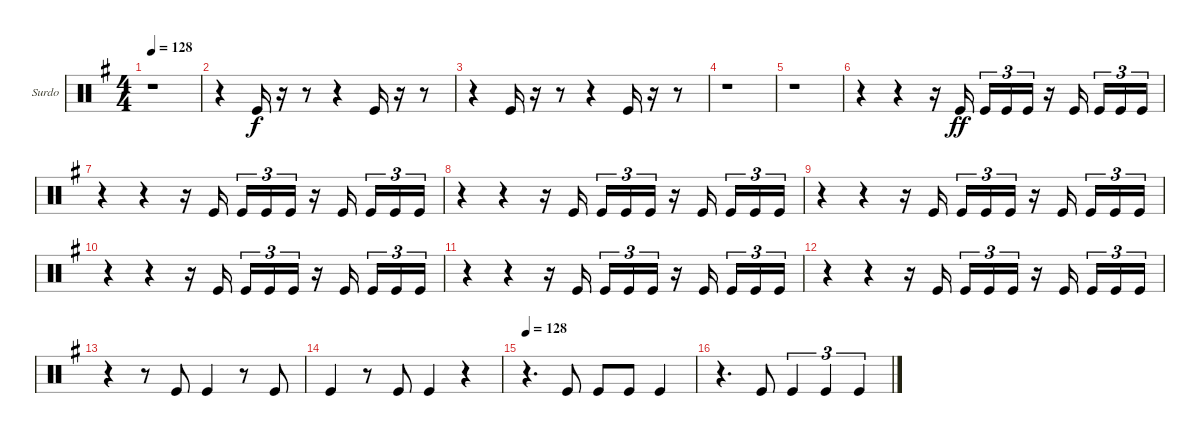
\bracketExtendMode groupsimilarinstruments
\firstSystemTrackNameOrientation horizontal
\otherSystemsTrackNameOrientation horizontal
\track ("Surdo" "Surdo") {instrument percussion}
\staff {score}
\articulation defaults
\ts (4 4)
\tempo 128
\clef neutral
\ks eminor
r.1{dy f} |
r.4 "Kick (hit)".16 r.16 r.8 r.4 "Kick (hit)".16 r.16 r.8 |
r.4 "Kick (hit)".16 r.16 r.8 r.4 "Kick (hit)".16 r.16 r.8 |
r.1 |
r.1 |
r.4 r.4 r.16 "Kick (hit)".16{dy ff} "Kick (hit)".16{tu (3 2)} "Kick (hit)".16{tu (3 2)} "Kick (hit)".16{tu (3 2)} r.16 "Kick (hit)".16 "Kick (hit)".16{tu (3 2)} "Kick (hit)".16{tu (3 2)} "Kick (hit)".16{tu (3 2)} |
r.4 r.4 r.16 "Kick (hit)".16 "Kick (hit)".16{tu (3 2)} "Kick (hit)".16{tu (3 2)} "Kick (hit)".16{tu (3 2)} r.16 "Kick (hit)".16 "Kick (hit)".16{tu (3 2)} "Kick (hit)".16{tu (3 2)} "Kick (hit)".16{tu (3 2)} |
r.4 r.4 r.16 "Kick (hit)".16 "Kick (hit)".16{tu (3 2)} "Kick (hit)".16{tu (3 2)} "Kick (hit)".16{tu (3 2)} r.16 "Kick (hit)".16 "Kick (hit)".16{tu (3 2)} "Kick (hit)".16{tu (3 2)} "Kick (hit)".16{tu (3 2)} |
r.4 r.4 r.16 "Kick (hit)".16 "Kick (hit)".16{tu (3 2)} "Kick (hit)".16{tu (3 2)} "Kick (hit)".16{tu (3 2)} r.16 "Kick (hit)".16 "Kick (hit)".16{tu (3 2)} "Kick (hit)".16{tu (3 2)} "Kick (hit)".16{tu (3 2)} |
r.4 r.4 r.16 "Kick (hit)".16 "Kick (hit)".16{tu (3 2)} "Kick (hit)".16{tu (3 2)} "Kick (hit)".16{tu (3 2)} r.16 "Kick (hit)".16 "Kick (hit)".16{tu (3 2)} "Kick (hit)".16{tu (3 2)} "Kick (hit)".16{tu (3 2)} |
r.4 r.4 r.16 "Kick (hit)".16 "Kick (hit)".16{tu (3 2)} "Kick (hit)".16{tu (3 2)} "Kick (hit)".16{tu (3 2)} r.16 "Kick (hit)".16 "Kick (hit)".16{tu (3 2)} "Kick (hit)".16{tu (3 2)} "Kick (hit)".16{tu (3 2)} |
r.4 r.4 r.16 "Kick (hit)".16 "Kick (hit)".16{tu (3 2)} "Kick (hit)".16{tu (3 2)} "Kick (hit)".16{tu (3 2)} r.16 "Kick (hit)".16 "Kick (hit)".16{tu (3 2)} "Kick (hit)".16{tu (3 2)} "Kick (hit)".16{tu (3 2)} |
r.4 r.8 "Kick (hit)".8 "Kick (hit)".4 r.8 "Kick (hit)".8 |
"Kick (hit)".4 r.8 "Kick (hit)".8 "Kick (hit)".4 r.4 |
\tempo 128
r.4{d} "Kick (hit)".8 "Kick (hit)".8 "Kick (hit)".8 "Kick (hit)".4 |
r.4{d} "Kick (hit)".8 "Kick (hit)".4{tu (3 2)} "Kick (hit)".4{tu (3 2)} "Kick (hit)".4{tu (3 2)}
